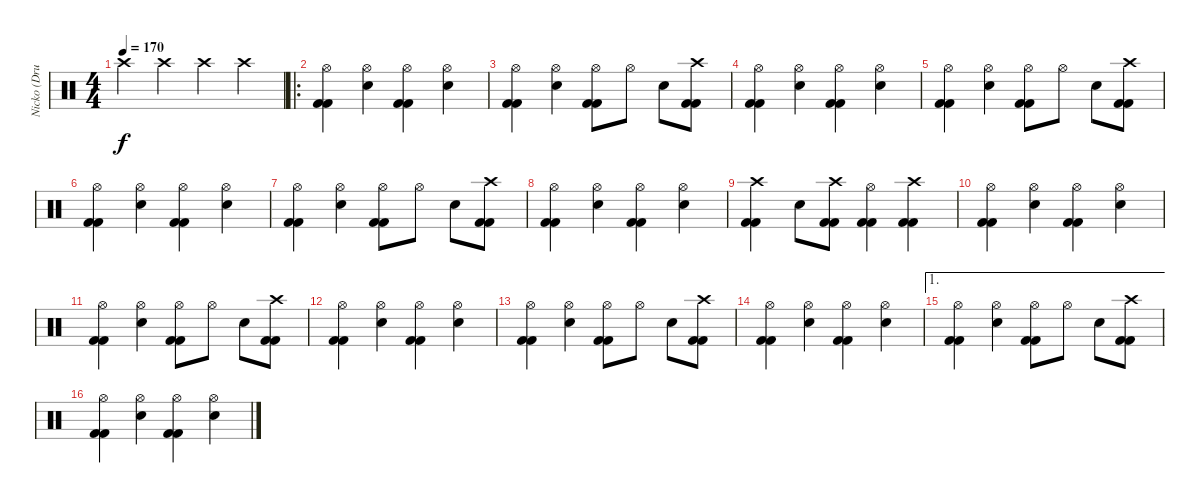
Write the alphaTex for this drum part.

\track ("Nicko (Drums)" "Nicko (Dru") {instrument percussion}
\staff {score}
\articulation defaults
\ts (4 4)
\tempo 170
\clef neutral
\ks c "Crash high (hit)".4{dy f} "Crash high (hit)".4 "Crash high (hit)".4 "Crash high (hit)".4
|
\ro
("Hi-Hat (open)" "Kick (hit) 2" "Kick (hit) 2").4 ("Hi-Hat (open)" "Snare (hit) 2").4 ("Hi-Hat (open)" "Kick (hit) 2" "Kick (hit) 2").4 ("Hi-Hat (open)" "Snare (hit) 2").4 |
("Hi-Hat (open)" "Kick (hit) 2" "Kick (hit) 2").4 ("Hi-Hat (open)" "Snare (hit) 2").4 ("Hi-Hat (open)" "Kick (hit) 2" "Kick (hit) 2").8 "Hi-Hat (open)".8 "Snare (hit) 2".8 ("Crash high (hit)" "Kick (hit) 2" "Kick (hit) 2").8 |
("Hi-Hat (open)" "Kick (hit) 2" "Kick (hit) 2").4 ("Hi-Hat (open)" "Snare (hit) 2").4 ("Hi-Hat (open)" "Kick (hit) 2" "Kick (hit) 2").4 ("Hi-Hat (open)" "Snare (hit) 2").4 |
("Hi-Hat (open)" "Kick (hit) 2" "Kick (hit) 2").4 ("Hi-Hat (open)" "Snare (hit) 2").4 ("Hi-Hat (open)" "Kick (hit) 2" "Kick (hit) 2").8 "Hi-Hat (open)".8 "Snare (hit) 2".8 ("Crash high (hit)" "Kick (hit) 2" "Kick (hit) 2").8 |
("Hi-Hat (open)" "Kick (hit) 2" "Kick (hit) 2").4 ("Hi-Hat (open)" "Snare (hit) 2").4 ("Hi-Hat (open)" "Kick (hit) 2" "Kick (hit) 2").4 ("Hi-Hat (open)" "Snare (hit) 2").4 |
("Hi-Hat (open)" "Kick (hit) 2" "Kick (hit) 2").4 ("Hi-Hat (open)" "Snare (hit) 2").4 ("Hi-Hat (open)" "Kick (hit) 2" "Kick (hit) 2").8 "Hi-Hat (open)".8 "Snare (hit) 2".8 ("Crash high (hit)" "Kick (hit) 2" "Kick (hit) 2").8 |
("Hi-Hat (open)" "Kick (hit) 2" "Kick (hit) 2").4 ("Hi-Hat (open)" "Snare (hit) 2").4 ("Hi-Hat (open)" "Kick (hit) 2" "Kick (hit) 2").4 ("Hi-Hat (open)" "Snare (hit) 2").4 |
("Crash high (hit)" "Kick (hit) 2" "Kick (hit) 2").4 "Snare (hit) 2".8 ("Crash high (hit)" "Kick (hit) 2" "Kick (hit) 2").8 ("Hi-Hat (open)" "Kick (hit) 2" "Kick (hit) 2").4 ("Crash high (hit)" "Kick (hit) 2" "Kick (hit) 2").4 |
("Hi-Hat (open)" "Kick (hit) 2" "Kick (hit) 2").4 ("Hi-Hat (open)" "Snare (hit) 2").4 ("Hi-Hat (open)" "Kick (hit) 2" "Kick (hit) 2").4 ("Hi-Hat (open)" "Snare (hit) 2").4 |
("Hi-Hat (open)" "Kick (hit) 2" "Kick (hit) 2").4 ("Hi-Hat (open)" "Snare (hit) 2").4 ("Hi-Hat (open)" "Kick (hit) 2" "Kick (hit) 2").8 "Hi-Hat (open)".8 "Snare (hit) 2".8 ("Crash high (hit)" "Kick (hit) 2" "Kick (hit) 2").8 |
("Hi-Hat (open)" "Kick (hit) 2" "Kick (hit) 2").4 ("Hi-Hat (open)" "Snare (hit) 2").4 ("Hi-Hat (open)" "Kick (hit) 2" "Kick (hit) 2").4 ("Hi-Hat (open)" "Snare (hit) 2").4 |
("Hi-Hat (open)" "Kick (hit) 2" "Kick (hit) 2").4 ("Hi-Hat (open)" "Snare (hit) 2").4 ("Hi-Hat (open)" "Kick (hit) 2" "Kick (hit) 2").8 "Hi-Hat (open)".8 "Snare (hit) 2".8 ("Crash high (hit)" "Kick (hit) 2" "Kick (hit) 2").8 |
("Hi-Hat (open)" "Kick (hit) 2" "Kick (hit) 2").4 ("Hi-Hat (open)" "Snare (hit) 2").4 ("Hi-Hat (open)" "Kick (hit) 2" "Kick (hit) 2").4 ("Hi-Hat (open)" "Snare (hit) 2").4 |
\ae 1
("Hi-Hat (open)" "Kick (hit) 2" "Kick (hit) 2").4 ("Hi-Hat (open)" "Snare (hit) 2").4 ("Hi-Hat (open)" "Kick (hit) 2" "Kick (hit) 2").8 "Hi-Hat (open)".8 "Snare (hit) 2".8 ("Crash high (hit)" "Kick (hit) 2" "Kick (hit) 2").8 |
("Hi-Hat (open)" "Kick (hit) 2" "Kick (hit) 2").4 ("Hi-Hat (open)" "Snare (hit) 2").4 ("Hi-Hat (open)" "Kick (hit) 2" "Kick (hit) 2").4 ("Hi-Hat (open)" "Snare (hit) 2").4
